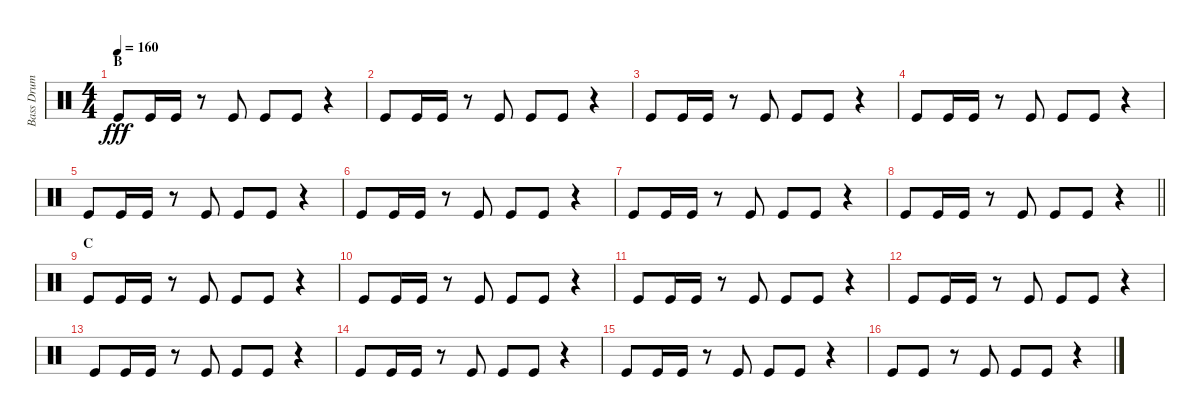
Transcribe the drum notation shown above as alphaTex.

\track ("Bass Drum" "Bass Drum") {instrument percussion}
\staff {score}
\articulation defaults
\ts (4 4)
\section ("" "B")
\tempo 160
\clef neutral
\ks c "Kick (hit)".8{dy fff} "Kick (hit)".16 "Kick (hit)".16
r.8 "Kick (hit)".8 "Kick (hit)".8 "Kick (hit)".8 r.4 |
"Kick (hit)".8 "Kick (hit)".16 "Kick (hit)".16 r.8 "Kick (hit)".8 "Kick (hit)".8 "Kick (hit)".8 r.4 |
"Kick (hit)".8 "Kick (hit)".16 "Kick (hit)".16 r.8 "Kick (hit)".8 "Kick (hit)".8 "Kick (hit)".8 r.4 |
"Kick (hit)".8 "Kick (hit)".16 "Kick (hit)".16 r.8 "Kick (hit)".8 "Kick (hit)".8 "Kick (hit)".8 r.4 |
"Kick (hit)".8 "Kick (hit)".16 "Kick (hit)".16 r.8 "Kick (hit)".8 "Kick (hit)".8 "Kick (hit)".8 r.4 |
"Kick (hit)".8 "Kick (hit)".16 "Kick (hit)".16 r.8 "Kick (hit)".8 "Kick (hit)".8 "Kick (hit)".8 r.4 |
"Kick (hit)".8 "Kick (hit)".16 "Kick (hit)".16 r.8 "Kick (hit)".8 "Kick (hit)".8 "Kick (hit)".8 r.4 |
\barLineRight lightlight "Kick (hit)".8 "Kick (hit)".16 "Kick (hit)".16
r.8 "Kick (hit)".8 "Kick (hit)".8 "Kick (hit)".8 r.4 |
\section ("" "C")
"Kick (hit)".8 "Kick (hit)".16 "Kick (hit)".16 r.8 "Kick (hit)".8 "Kick (hit)".8 "Kick (hit)".8 r.4 |
"Kick (hit)".8 "Kick (hit)".16 "Kick (hit)".16 r.8 "Kick (hit)".8 "Kick (hit)".8 "Kick (hit)".8 r.4 |
"Kick (hit)".8 "Kick (hit)".16 "Kick (hit)".16 r.8 "Kick (hit)".8 "Kick (hit)".8 "Kick (hit)".8 r.4 |
"Kick (hit)".8 "Kick (hit)".16 "Kick (hit)".16 r.8 "Kick (hit)".8 "Kick (hit)".8 "Kick (hit)".8 r.4 |
"Kick (hit)".8 "Kick (hit)".16 "Kick (hit)".16 r.8 "Kick (hit)".8 "Kick (hit)".8 "Kick (hit)".8 r.4 |
"Kick (hit)".8 "Kick (hit)".16 "Kick (hit)".16 r.8 "Kick (hit)".8 "Kick (hit)".8 "Kick (hit)".8 r.4 |
"Kick (hit)".8 "Kick (hit)".16 "Kick (hit)".16 r.8 "Kick (hit)".8 "Kick (hit)".8 "Kick (hit)".8 r.4 |
"Kick (hit)".8 "Kick (hit)".8 r.8 "Kick (hit)".8 "Kick (hit)".8 "Kick (hit)".8 r.4
